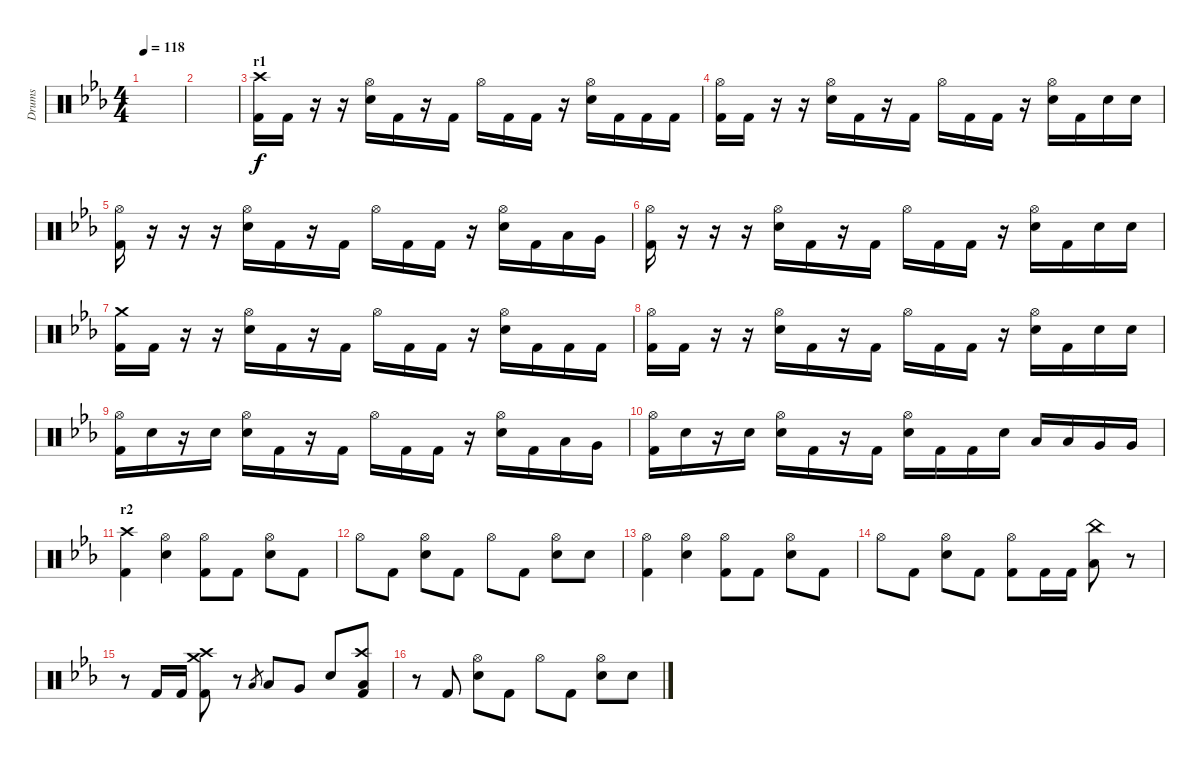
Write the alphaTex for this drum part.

\track ("Drums" "Drums") {instrument percussion}
\staff {score}
\articulation defaults
\ts (4 4)
\tempo 118
\clef neutral
\ks cminor
|
|
\section ("" "r1")
("Kick (hit) 2" "Crash high (hit)").16 "Kick (hit) 2".16 r.16 r.16 ("Hi-Hat (open)" "Electric Snare (hit)").16 "Kick (hit) 2".16 r.16 "Kick (hit) 2".16 "Hi-Hat (open)".16 "Kick (hit) 2".16 "Kick (hit) 2".16 r.16 ("Hi-Hat (open)" "Electric Snare (hit)").16 "Kick (hit) 2".16 "Kick (hit) 2".16 "Kick (hit) 2".16 |
("Kick (hit) 2" "Hi-Hat (open)").16 "Kick (hit) 2".16 r.16 r.16 ("Hi-Hat (open)" "Electric Snare (hit)").16 "Kick (hit) 2".16 r.16 "Kick (hit) 2".16 "Hi-Hat (open)".16 "Kick (hit) 2".16 "Kick (hit) 2".16 r.16 ("Hi-Hat (open)" "Electric Snare (hit)").16 "Kick (hit) 2".16 "Electric Snare (hit)".16 "Electric Snare (hit)".16 |
("Kick (hit) 2" "Hi-Hat (open)").16 r.16 r.16 r.16 ("Hi-Hat (open)" "Electric Snare (hit)").16 "Kick (hit) 2".16 r.16 "Kick (hit) 2".16 "Hi-Hat (open)".16 "Kick (hit) 2".16 "Kick (hit) 2".16 r.16 ("Hi-Hat (open)" "Electric Snare (hit)").16 "Kick (hit) 2".16 "Low Tom (hit)".16 "Very Low Tom (hit)".16 |
("Kick (hit) 2" "Hi-Hat (open)").16 r.16 r.16 r.16 ("Hi-Hat (open)" "Electric Snare (hit)").16 "Kick (hit) 2".16 r.16 "Kick (hit) 2".16 "Hi-Hat (open)".16 "Kick (hit) 2".16 "Kick (hit) 2".16 r.16 ("Hi-Hat (open)" "Electric Snare (hit)").16 "Kick (hit) 2".16 "Electric Snare (hit)".16 "Electric Snare (hit)".16 |
("Kick (hit) 2" "Crash medium (hit)").16 "Kick (hit) 2".16 r.16 r.16 ("Hi-Hat (open)" "Electric Snare (hit)").16 "Kick (hit) 2".16 r.16 "Kick (hit) 2".16 "Hi-Hat (open)".16 "Kick (hit) 2".16 "Kick (hit) 2".16 r.16 ("Hi-Hat (open)" "Electric Snare (hit)").16 "Kick (hit) 2".16 "Kick (hit) 2".16 "Kick (hit) 2".16 |
("Kick (hit) 2" "Hi-Hat (open)").16 "Kick (hit) 2".16 r.16 r.16 ("Hi-Hat (open)" "Electric Snare (hit)").16 "Kick (hit) 2".16 r.16 "Kick (hit) 2".16 "Hi-Hat (open)".16 "Kick (hit) 2".16 "Kick (hit) 2".16 r.16 ("Hi-Hat (open)" "Electric Snare (hit)").16 "Kick (hit) 2".16 "Electric Snare (hit)".16 "Electric Snare (hit)".16 |
("Kick (hit) 2" "Hi-Hat (open)").16 "Electric Snare (hit)".16 r.16 "Electric Snare (hit)".16 ("Hi-Hat (open)" "Electric Snare (hit)").16 "Kick (hit) 2".16 r.16 "Kick (hit) 2".16 "Hi-Hat (open)".16 "Kick (hit) 2".16 "Kick (hit) 2".16 r.16 ("Hi-Hat (open)" "Electric Snare (hit)").16 "Kick (hit) 2".16 "Low Tom (hit)".16 "Very Low Tom (hit)".16 |
("Kick (hit) 2" "Hi-Hat (open)").16 "Electric Snare (hit)".16 r.16 "Electric Snare (hit)".16 ("Hi-Hat (open)" "Electric Snare (hit)").16 "Kick (hit) 2".16 r.16 "Kick (hit) 2".16 ("Hi-Hat (open)" "Electric Snare (hit)").16 "Kick (hit) 2".16 "Kick (hit) 2".16 "Electric Snare (hit)".16 "Low Tom (hit)".16 "Low Tom (hit)".16 "Very Low Tom (hit)".16 "Very Low Tom (hit)".16 |
\section ("" "r2")
("Kick (hit) 2" "Crash high (hit)").4 ("Hi-Hat (open)" "Electric Snare (hit)").4 ("Kick (hit) 2" "Hi-Hat (open)").8 "Kick (hit) 2".8 ("Hi-Hat (open)" "Electric Snare (hit)").8 "Kick (hit) 2".8 |
"Hi-Hat (open)".8 "Kick (hit) 2".8 ("Hi-Hat (open)" "Electric Snare (hit)").8 "Kick (hit) 2".8 "Hi-Hat (open)".8 "Kick (hit) 2".8 ("Hi-Hat (open)" "Electric Snare (hit)").8 "Electric Snare (hit)".8 |
("Kick (hit) 2" "Hi-Hat (open)").4 ("Hi-Hat (open)" "Electric Snare (hit)").4 ("Kick (hit) 2" "Hi-Hat (open)").8 "Kick (hit) 2".8 ("Hi-Hat (open)" "Electric Snare (hit)").8 "Kick (hit) 2".8 |
"Hi-Hat (open)".8 "Kick (hit) 2".8 ("Hi-Hat (open)" "Electric Snare (hit)").8 "Kick (hit) 2".8 ("Kick (hit) 2" "Hi-Hat (open)").8 "Kick (hit) 2".16 "Kick (hit) 2".16 ("China (hit)" "Low Floor Tom (hit)").8 r.8 |
r.8 "Kick (hit) 2".16 "Kick (hit) 2".16 ("Kick (hit) 2" "Crash high (hit)" "Crash medium (hit)").8 r.8 "Low Tom (hit)".8{gr} "Low Tom (hit)".8 "Very Low Tom (hit)".8 "Electric Snare (hit)".8 ("Kick (hit) 2" "Low Floor Tom (hit)" "Crash high (hit)").8 |
r.8 "Kick (hit) 2".8 ("Hi-Hat (open)" "Electric Snare (hit)").8 "Kick (hit) 2".8 "Hi-Hat (open)".8 "Kick (hit) 2".8 ("Hi-Hat (open)" "Electric Snare (hit)").8 "Electric Snare (hit)".8
